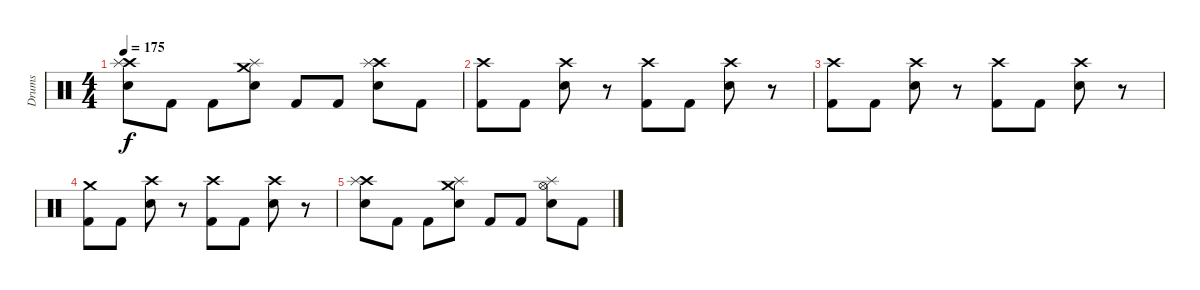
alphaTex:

\track ("Drums" "Drums") {instrument percussion}
\staff {score}
\articulation defaults
\ts (4 4)
\tempo 175
\clef neutral
\ks c
("Crash high (hit)" "Splash (hit)" "Snare (hit) 2").8{dy f} "Kick (hit) 2".8 "Kick (hit) 2".8 ("Crash medium (hit)" "Splash (hit)" "Snare (hit) 2").8 "Kick (hit) 2".8 "Kick (hit) 2".8 ("Crash high (hit)" "Splash (hit)" "Snare (hit) 2").8 "Kick (hit) 2".8 |
("Crash high (hit)" "Kick (hit) 2").8 "Kick (hit) 2".8 ("Crash high (hit)" "Snare (hit) 2").8 r.8 ("Crash high (hit)" "Kick (hit) 2").8 "Kick (hit) 2".8 ("Crash high (hit)" "Snare (hit) 2").8 r.8 |
("Crash high (hit)" "Kick (hit) 2").8 "Kick (hit) 2".8 ("Crash high (hit)" "Snare (hit) 2").8 r.8 ("Crash high (hit)" "Kick (hit) 2").8 "Kick (hit) 2".8 ("Crash high (hit)" "Snare (hit) 2").8 r.8 |
("Crash medium (hit)" "Kick (hit) 2").8 "Kick (hit) 2".8 ("Crash high (hit)" "Snare (hit) 2").8 r.8 ("Crash high (hit)" "Kick (hit) 2").8 "Kick (hit) 2".8 ("Crash high (hit)" "Snare (hit) 2").8 r.8 |
("Crash high (hit)" "Splash (hit)" "Snare (hit) 2").8 "Kick (hit) 2".8 "Kick (hit) 2".8 ("Crash medium (hit)" "Splash (hit)" "Snare (hit) 2").8 "Kick (hit) 2".8 "Kick (hit) 2".8 ("Hi-Hat (open)" "Splash (hit)" "Snare (hit) 2").8 "Kick (hit) 2".8
